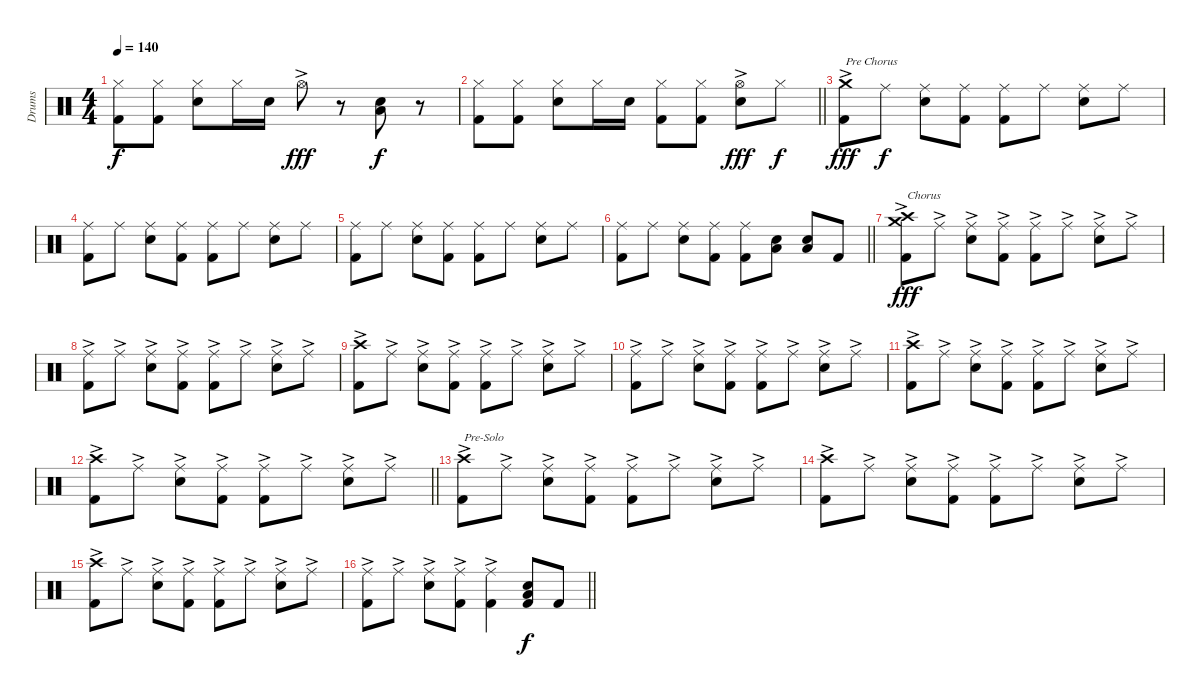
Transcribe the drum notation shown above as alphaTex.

\track ("Drums" "Drums") {instrument percussion}
\staff {score}
\articulation defaults
\ts (4 4)
\tempo 140
\clef neutral
\ks c
("Hi-Hat (closed)" "Kick (hit) 2").8{dy f} ("Hi-Hat (closed)" "Kick (hit) 2").8 ("Hi-Hat (closed)" "Electric Snare (hit)").8 "Hi-Hat (closed)".16 "Electric Snare (hit)".16 "Hi-Hat (open)"{ac}.8{dy fff} r.8 ("Electric Snare (hit)" "Low Floor Tom (hit)").8{dy f} r.8 |
\barLineRight lightlight
("Hi-Hat (closed)" "Kick (hit) 2").8 ("Hi-Hat (closed)" "Kick (hit) 2").8 ("Hi-Hat (closed)" "Electric Snare (hit)").8 "Hi-Hat (closed)".16 "Electric Snare (hit)".16 ("Hi-Hat (closed)" "Kick (hit) 2").8 ("Hi-Hat (closed)" "Kick (hit) 2").8 ("Hi-Hat (open)"{ac} "Electric Snare (hit)").8{dy fff} "Hi-Hat (closed)".8{dy f} |
("Crash medium (hit)"{ac} "Kick (hit) 2").8{txt "Pre Chorus" dy fff} "Ride (middle)".8{dy f} ("Ride (middle)" "Electric Snare (hit)").8 ("Ride (middle)" "Kick (hit) 2").8 ("Ride (middle)" "Kick (hit) 2").8 "Ride (middle)".8 ("Ride (middle)" "Electric Snare (hit)").8 "Ride (middle)".8 |
("Ride (middle)" "Kick (hit) 2").8 "Ride (middle)".8 ("Ride (middle)" "Electric Snare (hit)").8 ("Ride (middle)" "Kick (hit) 2").8 ("Ride (middle)" "Kick (hit) 2").8 "Ride (middle)".8 ("Ride (middle)" "Electric Snare (hit)").8 "Ride (middle)".8 |
("Ride (middle)" "Kick (hit) 2").8 "Ride (middle)".8 ("Ride (middle)" "Electric Snare (hit)").8 ("Ride (middle)" "Kick (hit) 2").8 ("Ride (middle)" "Kick (hit) 2").8 "Ride (middle)".8 ("Ride (middle)" "Electric Snare (hit)").8 "Ride (middle)".8 |
\barLineRight lightlight
("Ride (middle)" "Kick (hit) 2").8 "Ride (middle)".8 ("Ride (middle)" "Electric Snare (hit)").8 ("Ride (middle)" "Kick (hit) 2").8 ("Ride (middle)" "Kick (hit) 2").8 ("Electric Snare (hit)" "Low Floor Tom (hit)").8 ("Electric Snare (hit)" "Low Floor Tom (hit)").8 "Kick (hit) 2".8 |
("Crash medium (hit)"{ac} "Crash high (hit)"{ac} "Kick (hit) 2").8{txt "Chorus" dy fff} "Ride (middle)"{ac}.8 ("Ride (middle)"{ac} "Electric Snare (hit)").8 ("Ride (middle)"{ac} "Kick (hit) 2").8 ("Ride (middle)"{ac} "Kick (hit) 2").8 "Ride (middle)"{ac}.8 ("Ride (middle)"{ac} "Electric Snare (hit)").8 "Ride (middle)"{ac}.8 |
("Ride (middle)"{ac} "Kick (hit) 2").8 "Ride (middle)"{ac}.8 ("Ride (middle)"{ac} "Electric Snare (hit)").8 ("Ride (middle)"{ac} "Kick (hit) 2").8 ("Ride (middle)"{ac} "Kick (hit) 2").8 "Ride (middle)"{ac}.8 ("Ride (middle)"{ac} "Electric Snare (hit)").8 "Ride (middle)"{ac}.8 |
("Crash high (hit)"{ac} "Kick (hit) 2").8 "Ride (middle)"{ac}.8 ("Ride (middle)"{ac} "Electric Snare (hit)").8 ("Ride (middle)"{ac} "Kick (hit) 2").8 ("Ride (middle)"{ac} "Kick (hit) 2").8 "Ride (middle)"{ac}.8 ("Ride (middle)"{ac} "Electric Snare (hit)").8 "Ride (middle)"{ac}.8 |
("Ride (middle)"{ac} "Kick (hit) 2").8 "Ride (middle)"{ac}.8 ("Ride (middle)"{ac} "Electric Snare (hit)").8 ("Ride (middle)"{ac} "Kick (hit) 2").8 ("Ride (middle)"{ac} "Kick (hit) 2").8 "Ride (middle)"{ac}.8 ("Ride (middle)"{ac} "Electric Snare (hit)").8 "Ride (middle)"{ac}.8 |
("Crash high (hit)"{ac} "Kick (hit) 2").8 "Ride (middle)"{ac}.8 ("Ride (middle)"{ac} "Electric Snare (hit)").8 ("Ride (middle)"{ac} "Kick (hit) 2").8 ("Ride (middle)"{ac} "Kick (hit) 2").8 "Ride (middle)"{ac}.8 ("Ride (middle)"{ac} "Electric Snare (hit)").8 "Ride (middle)"{ac}.8 |
\barLineRight lightlight
("Crash high (hit)"{ac} "Kick (hit) 2").8 "Ride (middle)"{ac}.8 ("Ride (middle)"{ac} "Electric Snare (hit)").8 ("Ride (middle)"{ac} "Kick (hit) 2").8 ("Ride (middle)"{ac} "Kick (hit) 2").8 "Ride (middle)"{ac}.8 ("Ride (middle)"{ac} "Electric Snare (hit)").8 "Ride (middle)"{ac}.8 |
("Crash high (hit)"{ac} "Kick (hit) 2").8{txt "Pre-Solo"} "Ride (middle)"{ac}.8 ("Ride (middle)"{ac} "Electric Snare (hit)").8 ("Ride (middle)"{ac} "Kick (hit) 2").8 ("Ride (middle)"{ac} "Kick (hit) 2").8 "Ride (middle)"{ac}.8 ("Ride (middle)"{ac} "Electric Snare (hit)").8 "Ride (middle)"{ac}.8 |
("Crash high (hit)"{ac} "Kick (hit) 2").8 "Ride (middle)"{ac}.8 ("Ride (middle)"{ac} "Electric Snare (hit)").8 ("Ride (middle)"{ac} "Kick (hit) 2").8 ("Ride (middle)"{ac} "Kick (hit) 2").8 "Ride (middle)"{ac}.8 ("Ride (middle)"{ac} "Electric Snare (hit)").8 "Ride (middle)"{ac}.8 |
("Crash high (hit)"{ac} "Kick (hit) 2").8 "Ride (middle)"{ac}.8 ("Ride (middle)"{ac} "Electric Snare (hit)").8 ("Ride (middle)"{ac} "Kick (hit) 2").8 ("Ride (middle)"{ac} "Kick (hit) 2").8 "Ride (middle)"{ac}.8 ("Ride (middle)"{ac} "Electric Snare (hit)").8 "Ride (middle)"{ac}.8 |
\barLineRight lightlight
("Ride (middle)"{ac} "Kick (hit) 2").8 "Ride (middle)"{ac}.8 ("Ride (middle)"{ac} "Electric Snare (hit)").8 ("Ride (middle)"{ac} "Kick (hit) 2").8 ("Ride (middle)"{ac} "Kick (hit) 2").4 ("Electric Snare (hit)" "Low Floor Tom (hit)" "Kick (hit) 2").8{dy f} "Kick (hit) 2".8
